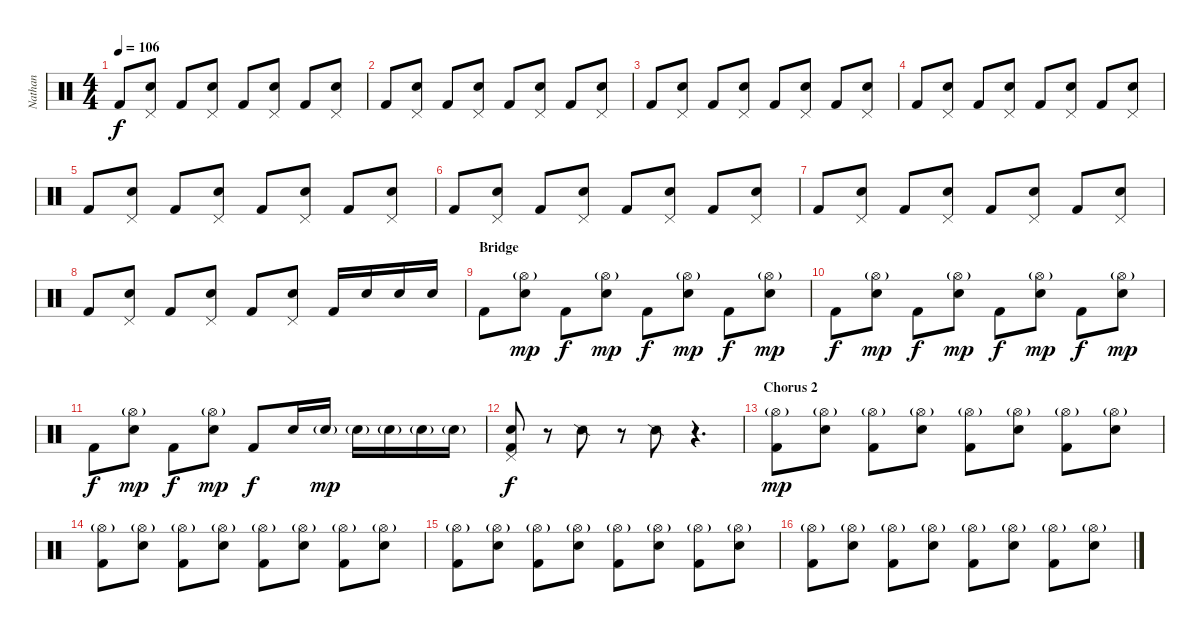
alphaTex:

\track ("Nathan" "Nathan") {instrument percussion}
\staff {score}
\articulation defaults
\ts (4 4)
\tempo 106
\clef neutral
\ks c "Kick (hit) 2".8{dy f}
("Pedal Hi-Hat (hit)" "Snare (hit) 2").8 "Kick (hit) 2".8 ("Pedal Hi-Hat (hit)" "Snare (hit) 2").8 "Kick (hit) 2".8 ("Pedal Hi-Hat (hit)" "Snare (hit) 2").8 "Kick (hit) 2".8 ("Pedal Hi-Hat (hit)" "Snare (hit) 2").8 |
"Kick (hit) 2".8 ("Pedal Hi-Hat (hit)" "Snare (hit) 2").8 "Kick (hit) 2".8 ("Pedal Hi-Hat (hit)" "Snare (hit) 2").8 "Kick (hit) 2".8 ("Pedal Hi-Hat (hit)" "Snare (hit) 2").8 "Kick (hit) 2".8 ("Pedal Hi-Hat (hit)" "Snare (hit) 2").8 |
"Kick (hit) 2".8 ("Pedal Hi-Hat (hit)" "Snare (hit) 2").8 "Kick (hit) 2".8 ("Pedal Hi-Hat (hit)" "Snare (hit) 2").8 "Kick (hit) 2".8 ("Pedal Hi-Hat (hit)" "Snare (hit) 2").8 "Kick (hit) 2".8 ("Pedal Hi-Hat (hit)" "Snare (hit) 2").8 |
"Kick (hit) 2".8 ("Pedal Hi-Hat (hit)" "Snare (hit) 2").8 "Kick (hit) 2".8 ("Pedal Hi-Hat (hit)" "Snare (hit) 2").8 "Kick (hit) 2".8 ("Pedal Hi-Hat (hit)" "Snare (hit) 2").8 "Kick (hit) 2".8 ("Pedal Hi-Hat (hit)" "Snare (hit) 2").8 |
"Kick (hit) 2".8 ("Pedal Hi-Hat (hit)" "Snare (hit) 2").8 "Kick (hit) 2".8 ("Pedal Hi-Hat (hit)" "Snare (hit) 2").8 "Kick (hit) 2".8 ("Pedal Hi-Hat (hit)" "Snare (hit) 2").8 "Kick (hit) 2".8 ("Pedal Hi-Hat (hit)" "Snare (hit) 2").8 |
"Kick (hit) 2".8 ("Pedal Hi-Hat (hit)" "Snare (hit) 2").8 "Kick (hit) 2".8 ("Pedal Hi-Hat (hit)" "Snare (hit) 2").8 "Kick (hit) 2".8 ("Pedal Hi-Hat (hit)" "Snare (hit) 2").8 "Kick (hit) 2".8 ("Pedal Hi-Hat (hit)" "Snare (hit) 2").8 |
"Kick (hit) 2".8 ("Pedal Hi-Hat (hit)" "Snare (hit) 2").8 "Kick (hit) 2".8 ("Pedal Hi-Hat (hit)" "Snare (hit) 2").8 "Kick (hit) 2".8 ("Pedal Hi-Hat (hit)" "Snare (hit) 2").8 "Kick (hit) 2".8 ("Pedal Hi-Hat (hit)" "Snare (hit) 2").8 |
"Kick (hit) 2".8 ("Pedal Hi-Hat (hit)" "Snare (hit) 2").8 "Kick (hit) 2".8 ("Pedal Hi-Hat (hit)" "Snare (hit) 2").8 "Kick (hit) 2".8 ("Pedal Hi-Hat (hit)" "Snare (hit) 2").8 "Kick (hit) 2".16 "Snare (hit) 2".16 "Snare (hit) 2".16 "Snare (hit) 2".16 |
\section ("" "Bridge")
"Kick (hit) 2".8 ("Hi-Hat (open)"{g} "Snare (hit) 2").8{dy mp} "Kick (hit) 2".8{dy f} ("Hi-Hat (open)"{g} "Snare (hit) 2").8{dy mp} "Kick (hit) 2".8{dy f} ("Hi-Hat (open)"{g} "Snare (hit) 2").8{dy mp} "Kick (hit) 2".8{dy f} ("Hi-Hat (open)"{g} "Snare (hit) 2").8{dy mp} |
"Kick (hit) 2".8{dy f} ("Hi-Hat (open)"{g} "Snare (hit) 2").8{dy mp} "Kick (hit) 2".8{dy f} ("Hi-Hat (open)"{g} "Snare (hit) 2").8{dy mp} "Kick (hit) 2".8{dy f} ("Hi-Hat (open)"{g} "Snare (hit) 2").8{dy mp} "Kick (hit) 2".8{dy f} ("Hi-Hat (open)"{g} "Snare (hit) 2").8{dy mp} |
"Kick (hit) 2".8{dy f} ("Hi-Hat (open)"{g} "Snare (hit) 2").8{dy mp} "Kick (hit) 2".8{dy f} ("Hi-Hat (open)"{g} "Snare (hit) 2").8{dy mp} "Kick (hit) 2".8{dy f} "Snare (hit) 2".16 "Snare (hit) 2"{g}.16{dy mp} "Snare (hit) 2"{g}.16 "Snare (hit) 2"{g}.16 "Snare (hit) 2"{g}.16 "Snare (hit) 2"{g}.16 |
("Pedal Hi-Hat (hit)" "Snare (hit) 2" "Kick (hit) 2").8{dy f} r.8 "Snare (side stick) 2".8 r.8 "Snare (side stick) 2".8 r.4{d} |
\section ("" "Chorus 2")
("Hi-Hat (open)"{g} "Kick (hit) 2").8{dy mp} ("Hi-Hat (open)"{g} "Snare (hit) 2").8 ("Hi-Hat (open)"{g} "Kick (hit) 2").8 ("Hi-Hat (open)"{g} "Snare (hit) 2").8 ("Hi-Hat (open)"{g} "Kick (hit) 2").8 ("Hi-Hat (open)"{g} "Snare (hit) 2").8 ("Hi-Hat (open)"{g} "Kick (hit) 2").8 ("Hi-Hat (open)"{g} "Snare (hit) 2").8 |
("Hi-Hat (open)"{g} "Kick (hit) 2").8 ("Hi-Hat (open)"{g} "Snare (hit) 2").8 ("Hi-Hat (open)"{g} "Kick (hit) 2").8 ("Hi-Hat (open)"{g} "Snare (hit) 2").8 ("Hi-Hat (open)"{g} "Kick (hit) 2").8 ("Hi-Hat (open)"{g} "Snare (hit) 2").8 ("Hi-Hat (open)"{g} "Kick (hit) 2").8 ("Hi-Hat (open)"{g} "Snare (hit) 2").8 |
("Hi-Hat (open)"{g} "Kick (hit) 2").8 ("Hi-Hat (open)"{g} "Snare (hit) 2").8 ("Hi-Hat (open)"{g} "Kick (hit) 2").8 ("Hi-Hat (open)"{g} "Snare (hit) 2").8 ("Hi-Hat (open)"{g} "Kick (hit) 2").8 ("Hi-Hat (open)"{g} "Snare (hit) 2").8 ("Hi-Hat (open)"{g} "Kick (hit) 2").8 ("Hi-Hat (open)"{g} "Snare (hit) 2").8 |
("Hi-Hat (open)"{g} "Kick (hit) 2").8 ("Hi-Hat (open)"{g} "Snare (hit) 2").8 ("Hi-Hat (open)"{g} "Kick (hit) 2").8 ("Hi-Hat (open)"{g} "Snare (hit) 2").8 ("Hi-Hat (open)"{g} "Kick (hit) 2").8 ("Hi-Hat (open)"{g} "Snare (hit) 2").8 ("Hi-Hat (open)"{g} "Kick (hit) 2").8 ("Hi-Hat (open)"{g} "Snare (hit) 2").8
